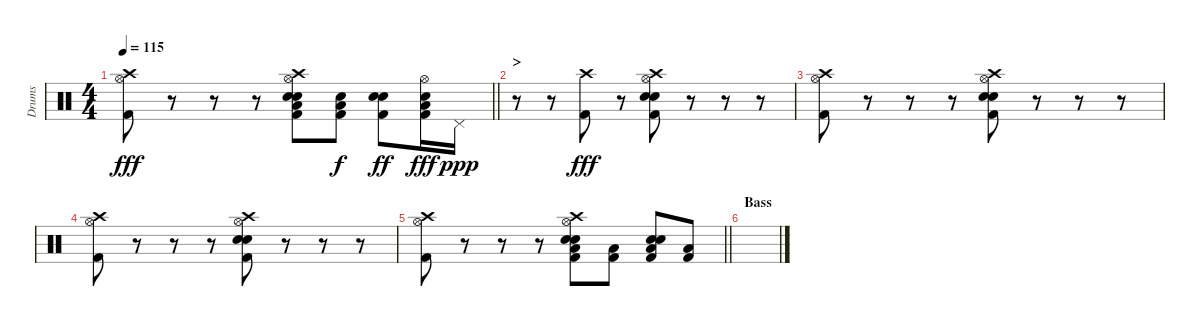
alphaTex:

\track ("Drums" "Drums") {instrument percussion}
\staff {score}
\articulation defaults
\ts (4 4)
\tempo 115
\clef neutral
\barLineRight lightlight
\ks c
("Crash high (hit)" "Hi-Hat (open)" "Kick (hit) 2").8{dy fff} r.8 r.8 r.8 ("Crash high (hit)" "Hi-Hat (open)" "Electric Snare (hit)" "Snare (hit) 2" "Low Floor Tom (hit)" "Kick (hit) 2").8 ("Snare (hit) 2" "Low Floor Tom (hit)" "Kick (hit) 2").8{dy f} ("Snare (hit) 2" "Electric Snare (hit)" "Kick (hit) 2").8{dy ff} ("Hi-Hat (open)" "Snare (hit) 2" "Low Floor Tom (hit)" "Kick (hit) 2").16{dy fff} "Pedal Hi-Hat (hit)".16{dy ppp} |
\section ("" ">")
r.8 r.8 ("Crash high (hit)" "Kick (hit) 2").8{dy fff} r.8 ("Crash high (hit)" "Hi-Hat (open)" "Electric Snare (hit)" "Snare (hit) 2" "Kick (hit) 2").8 r.8 r.8 r.8 |
("Crash high (hit)" "Hi-Hat (open)" "Kick (hit) 2").8 r.8 r.8 r.8 ("Crash high (hit)" "Hi-Hat (open)" "Electric Snare (hit)" "Snare (hit) 2" "Kick (hit) 2").8 r.8 r.8 r.8 |
("Crash high (hit)" "Hi-Hat (open)" "Kick (hit) 2").8 r.8 r.8 r.8 ("Crash high (hit)" "Hi-Hat (open)" "Electric Snare (hit)" "Snare (hit) 2" "Kick (hit) 2").8 r.8 r.8 r.8 |
\barLineRight lightlight
("Crash high (hit)" "Hi-Hat (open)" "Kick (hit) 2").8 r.8 r.8 r.8 ("Crash high (hit)" "Hi-Hat (open)" "Electric Snare (hit)" "Snare (hit) 2" "Low Floor Tom (hit)" "Kick (hit) 2").8 ("Low Floor Tom (hit)" "Kick (hit) 2").8 ("Snare (hit) 2" "Electric Snare (hit)" "Low Floor Tom (hit)" "Kick (hit) 2").8 ("Low Floor Tom (hit)" "Kick (hit) 2").8 |
\section ("" "Bass")
